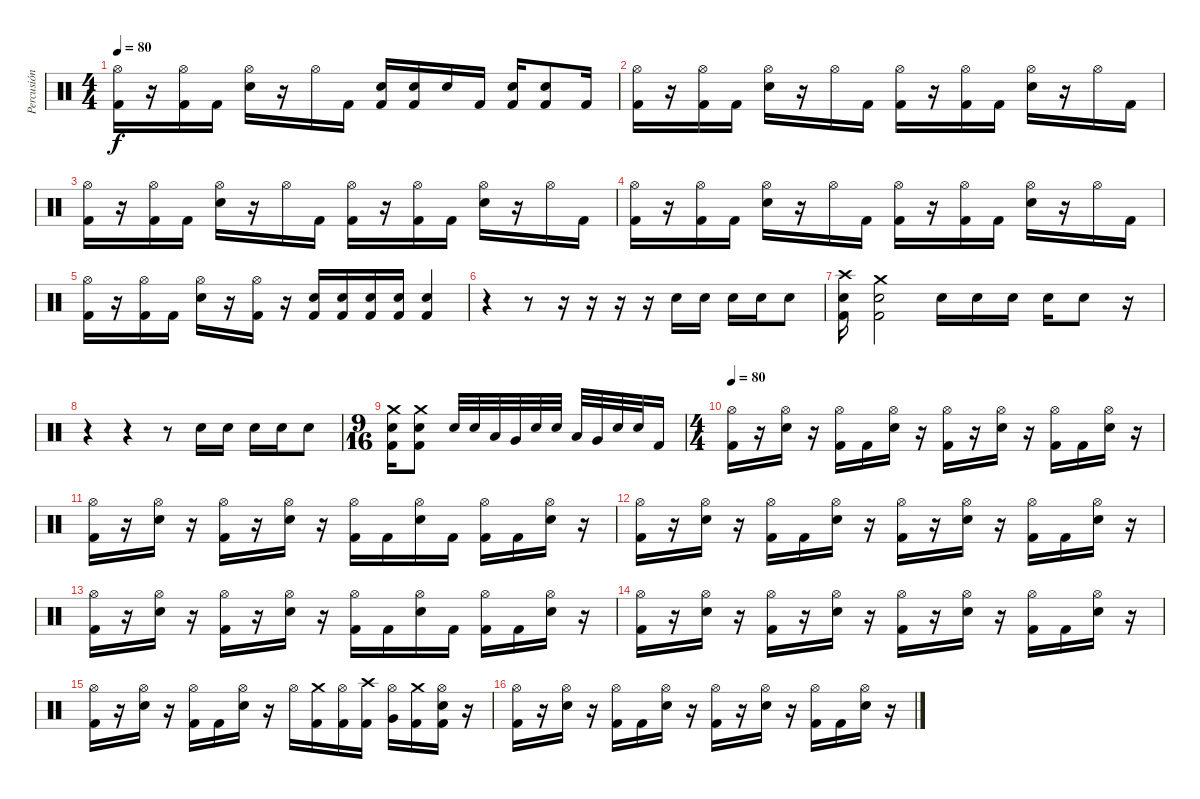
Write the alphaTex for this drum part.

\track ("Percusión" "Percusión") {instrument percussion}
\staff {score}
\articulation defaults
\ts (4 4)
\tempo 80
\clef neutral
\ks c
("Kick (hit) 2" "Hi-Hat (open)").16{dy f} r.16 ("Kick (hit) 2" "Hi-Hat (open)").16 "Kick (hit) 2".16 ("Electric Snare (hit)" "Hi-Hat (open)").16 r.16 "Hi-Hat (open)".16 "Kick (hit) 2".16 ("Kick (hit) 2" "Electric Snare (hit)").16 ("Kick (hit) 2" "Electric Snare (hit)").16 "Electric Snare (hit)".16 "Kick (hit) 2".16 ("Kick (hit) 2" "Electric Snare (hit)").16 ("Kick (hit) 2" "Electric Snare (hit)").8 "Kick (hit) 2".16 |
("Kick (hit) 2" "Hi-Hat (open)").16 r.16 ("Kick (hit) 2" "Hi-Hat (open)").16 "Kick (hit) 2".16 ("Electric Snare (hit)" "Hi-Hat (open)").16 r.16 "Hi-Hat (open)".16 "Kick (hit) 2".16 ("Kick (hit) 2" "Hi-Hat (open)").16 r.16 ("Kick (hit) 2" "Hi-Hat (open)").16 "Kick (hit) 2".16 ("Electric Snare (hit)" "Hi-Hat (open)").16 r.16 "Hi-Hat (open)".16 "Kick (hit) 2".16 |
("Kick (hit) 2" "Hi-Hat (open)").16 r.16 ("Kick (hit) 2" "Hi-Hat (open)").16 "Kick (hit) 2".16 ("Electric Snare (hit)" "Hi-Hat (open)").16 r.16 "Hi-Hat (open)".16 "Kick (hit) 2".16 ("Kick (hit) 2" "Hi-Hat (open)").16 r.16 ("Kick (hit) 2" "Hi-Hat (open)").16 "Kick (hit) 2".16 ("Electric Snare (hit)" "Hi-Hat (open)").16 r.16 "Hi-Hat (open)".16 "Kick (hit) 2".16 |
("Kick (hit) 2" "Hi-Hat (open)").16 r.16 ("Kick (hit) 2" "Hi-Hat (open)").16 "Kick (hit) 2".16 ("Electric Snare (hit)" "Hi-Hat (open)").16 r.16 "Hi-Hat (open)".16 "Kick (hit) 2".16 ("Kick (hit) 2" "Hi-Hat (open)").16 r.16 ("Kick (hit) 2" "Hi-Hat (open)").16 "Kick (hit) 2".16 ("Electric Snare (hit)" "Hi-Hat (open)").16 r.16 "Hi-Hat (open)".16 "Kick (hit) 2".16 |
("Kick (hit) 2" "Hi-Hat (open)").16 r.16 ("Kick (hit) 2" "Hi-Hat (open)").16 "Kick (hit) 2".16 ("Electric Snare (hit)" "Hi-Hat (open)").16 r.16 ("Kick (hit) 2" "Hi-Hat (open)").16 r.16 ("Kick (hit) 2" "Electric Snare (hit)").16 ("Kick (hit) 2" "Electric Snare (hit)").16 ("Kick (hit) 2" "Electric Snare (hit)").16 ("Kick (hit) 2" "Electric Snare (hit)").16 ("Kick (hit) 2" "Electric Snare (hit)").4 |
r.4 r.8 r.16 r.16 r.16 r.16 "Electric Snare (hit)".16 "Electric Snare (hit)".16 "Electric Snare (hit)".16 "Electric Snare (hit)".16 "Electric Snare (hit)".8 |
("Electric Snare (hit)" "Kick (hit) 2" "Crash high (hit)").16 ("Electric Snare (hit)" "Kick (hit) 2" "Crash medium (hit)").2 "Electric Snare (hit)".16 "Electric Snare (hit)".16 "Electric Snare (hit)".16 "Electric Snare (hit)".16 "Electric Snare (hit)".8 r.16 |
r.4 r.4 r.8 "Electric Snare (hit)".16 "Electric Snare (hit)".16 "Electric Snare (hit)".16 "Electric Snare (hit)".16 "Electric Snare (hit)".8 |
\ts (9 16)
("Electric Snare (hit)" "Kick (hit) 2" "Crash medium (hit)").16 ("Electric Snare (hit)" "Kick (hit) 2" "Crash medium (hit)").8 "Electric Snare (hit)".32 "Electric Snare (hit)".32 "Low Tom (hit)".32 "Very Low Tom (hit)".32 "Electric Snare (hit)".32 "Electric Snare (hit)".32 "Low Tom (hit)".32 "Very Low Tom (hit)".32 "Electric Snare (hit)".32 "Electric Snare (hit)".32 "Kick (hit) 2".16 |
\ts (4 4)
\tempo 80
("Kick (hit) 2" "Hi-Hat (open)").16 r.16 ("Electric Snare (hit)" "Hi-Hat (open)").16 r.16 ("Kick (hit) 2" "Hi-Hat (open)").16 "Kick (hit) 2".16 ("Electric Snare (hit)" "Hi-Hat (open)").16 r.16 ("Kick (hit) 2" "Hi-Hat (open)").16 r.16 ("Electric Snare (hit)" "Hi-Hat (open)").16 r.16 ("Kick (hit) 2" "Hi-Hat (open)").16 "Kick (hit) 2".16 ("Electric Snare (hit)" "Hi-Hat (open)").16 r.16 |
("Kick (hit) 2" "Hi-Hat (open)").16 r.16 ("Electric Snare (hit)" "Hi-Hat (open)").16 r.16 ("Kick (hit) 2" "Hi-Hat (open)").16 r.16 ("Electric Snare (hit)" "Hi-Hat (open)").16 r.16 ("Kick (hit) 2" "Hi-Hat (open)").16 "Kick (hit) 2".16 ("Electric Snare (hit)" "Hi-Hat (open)").16 "Kick (hit) 2".16 ("Kick (hit) 2" "Hi-Hat (open)").16 "Kick (hit) 2".16 ("Electric Snare (hit)" "Hi-Hat (open)").16 r.16 |
("Kick (hit) 2" "Hi-Hat (open)").16 r.16 ("Electric Snare (hit)" "Hi-Hat (open)").16 r.16 ("Kick (hit) 2" "Hi-Hat (open)").16 "Kick (hit) 2".16 ("Electric Snare (hit)" "Hi-Hat (open)").16 r.16 ("Kick (hit) 2" "Hi-Hat (open)").16 r.16 ("Electric Snare (hit)" "Hi-Hat (open)").16 r.16 ("Kick (hit) 2" "Hi-Hat (open)").16 "Kick (hit) 2".16 ("Electric Snare (hit)" "Hi-Hat (open)").16 r.16 |
("Kick (hit) 2" "Hi-Hat (open)").16 r.16 ("Electric Snare (hit)" "Hi-Hat (open)").16 r.16 ("Kick (hit) 2" "Hi-Hat (open)").16 r.16 ("Electric Snare (hit)" "Hi-Hat (open)").16 r.16 ("Kick (hit) 2" "Hi-Hat (open)").16 "Kick (hit) 2".16 ("Electric Snare (hit)" "Hi-Hat (open)").16 "Kick (hit) 2".16 ("Kick (hit) 2" "Hi-Hat (open)").16 "Kick (hit) 2".16 ("Electric Snare (hit)" "Hi-Hat (open)").16 r.16 |
("Kick (hit) 2" "Hi-Hat (open)").16 r.16 ("Electric Snare (hit)" "Hi-Hat (open)").16 r.16 ("Kick (hit) 2" "Hi-Hat (open)").16 r.16 ("Electric Snare (hit)" "Hi-Hat (open)").16 r.16 ("Kick (hit) 2" "Hi-Hat (open)").16 r.16 ("Electric Snare (hit)" "Hi-Hat (open)").16 r.16 ("Kick (hit) 2" "Hi-Hat (open)").16 "Kick (hit) 2".16 ("Electric Snare (hit)" "Hi-Hat (open)").16 r.16 |
("Kick (hit) 2" "Hi-Hat (open)").16 r.16 ("Electric Snare (hit)" "Hi-Hat (open)").16 r.16 ("Kick (hit) 2" "Hi-Hat (open)").16 "Kick (hit) 2".16 ("Electric Snare (hit)" "Hi-Hat (open)").16 r.16 "Hi-Hat (open)".16 ("Kick (hit) 2" "Crash medium (hit)").16 ("Kick (hit) 2" "Hi-Hat (open)").16 ("Kick (hit) 2" "Crash high (hit)").16 ("Very Low Tom (hit)" "Hi-Hat (open)").16 ("Kick (hit) 2" "Crash medium (hit)").16 ("Kick (hit) 2" "Electric Snare (hit)" "Hi-Hat (open)").16 r.16 |
("Kick (hit) 2" "Hi-Hat (open)").16 r.16 ("Electric Snare (hit)" "Hi-Hat (open)").16 r.16 ("Kick (hit) 2" "Hi-Hat (open)").16 "Kick (hit) 2".16 ("Electric Snare (hit)" "Hi-Hat (open)").16 r.16 ("Kick (hit) 2" "Hi-Hat (open)").16 r.16 ("Electric Snare (hit)" "Hi-Hat (open)").16 r.16 ("Kick (hit) 2" "Hi-Hat (open)").16 "Kick (hit) 2".16 ("Electric Snare (hit)" "Hi-Hat (open)").16 r.16
